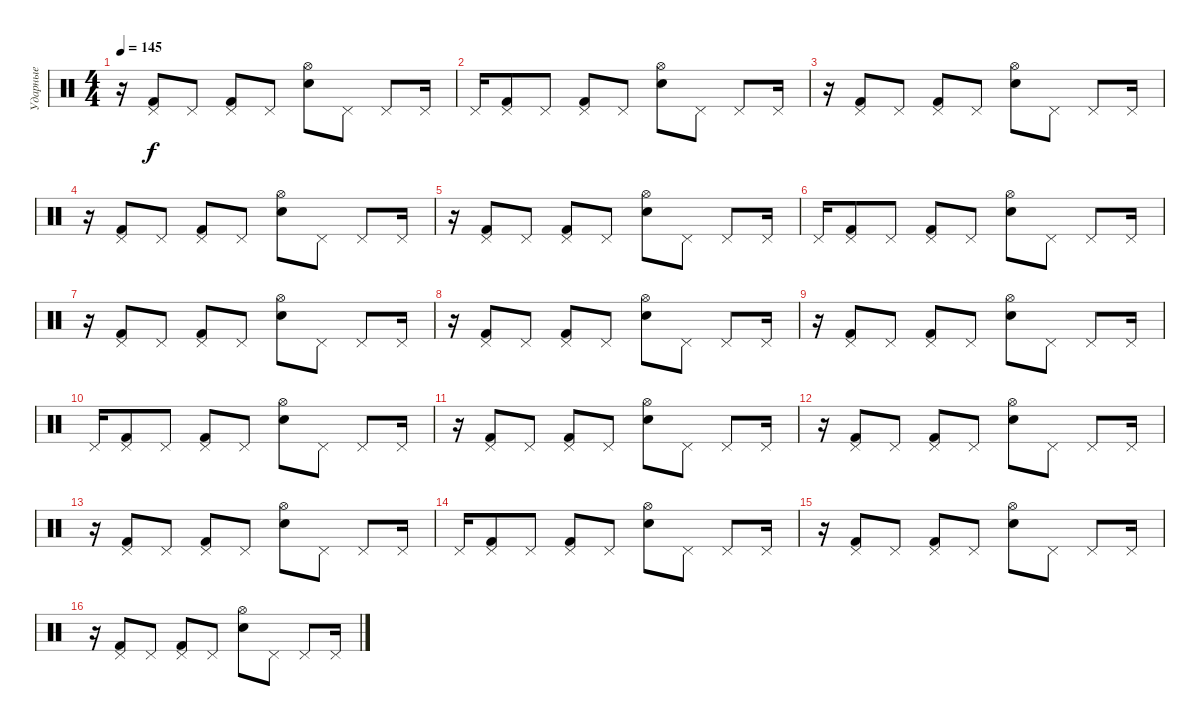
\track ("Ударные" "Ударные") {instrument percussion}
\staff {score}
\articulation defaults
\ts (4 4)
\tempo 145
\clef neutral
\ks c
r.16{dy f} ("Pedal Hi-Hat (hit)" "Kick (hit) 2").8 "Pedal Hi-Hat (hit)".8 ("Pedal Hi-Hat (hit)" "Kick (hit) 2").8 "Pedal Hi-Hat (hit)".8 ("Hi-Hat (open)" "Electric Snare (hit)").8 "Pedal Hi-Hat (hit)".8 "Pedal Hi-Hat (hit)".8 "Pedal Hi-Hat (hit)".16 |
"Pedal Hi-Hat (hit)".16 ("Pedal Hi-Hat (hit)" "Kick (hit) 2").8 "Pedal Hi-Hat (hit)".8 ("Pedal Hi-Hat (hit)" "Kick (hit) 2").8 "Pedal Hi-Hat (hit)".8 ("Hi-Hat (open)" "Electric Snare (hit)").8 "Pedal Hi-Hat (hit)".8 "Pedal Hi-Hat (hit)".8 "Pedal Hi-Hat (hit)".16 |
r.16 ("Pedal Hi-Hat (hit)" "Kick (hit) 2").8 "Pedal Hi-Hat (hit)".8 ("Pedal Hi-Hat (hit)" "Kick (hit) 2").8 "Pedal Hi-Hat (hit)".8 ("Hi-Hat (open)" "Electric Snare (hit)").8 "Pedal Hi-Hat (hit)".8 "Pedal Hi-Hat (hit)".8 "Pedal Hi-Hat (hit)".16 |
r.16 ("Pedal Hi-Hat (hit)" "Kick (hit) 2").8 "Pedal Hi-Hat (hit)".8 ("Pedal Hi-Hat (hit)" "Kick (hit) 2").8 "Pedal Hi-Hat (hit)".8 ("Hi-Hat (open)" "Electric Snare (hit)").8 "Pedal Hi-Hat (hit)".8 "Pedal Hi-Hat (hit)".8 "Pedal Hi-Hat (hit)".16 |
r.16 ("Pedal Hi-Hat (hit)" "Kick (hit) 2").8 "Pedal Hi-Hat (hit)".8 ("Pedal Hi-Hat (hit)" "Kick (hit) 2").8 "Pedal Hi-Hat (hit)".8 ("Hi-Hat (open)" "Electric Snare (hit)").8 "Pedal Hi-Hat (hit)".8 "Pedal Hi-Hat (hit)".8 "Pedal Hi-Hat (hit)".16 |
"Pedal Hi-Hat (hit)".16 ("Pedal Hi-Hat (hit)" "Kick (hit) 2").8 "Pedal Hi-Hat (hit)".8 ("Pedal Hi-Hat (hit)" "Kick (hit) 2").8 "Pedal Hi-Hat (hit)".8 ("Hi-Hat (open)" "Electric Snare (hit)").8 "Pedal Hi-Hat (hit)".8 "Pedal Hi-Hat (hit)".8 "Pedal Hi-Hat (hit)".16 |
r.16 ("Pedal Hi-Hat (hit)" "Kick (hit) 2").8 "Pedal Hi-Hat (hit)".8 ("Pedal Hi-Hat (hit)" "Kick (hit) 2").8 "Pedal Hi-Hat (hit)".8 ("Hi-Hat (open)" "Electric Snare (hit)").8 "Pedal Hi-Hat (hit)".8 "Pedal Hi-Hat (hit)".8 "Pedal Hi-Hat (hit)".16 |
r.16 ("Pedal Hi-Hat (hit)" "Kick (hit) 2").8 "Pedal Hi-Hat (hit)".8 ("Pedal Hi-Hat (hit)" "Kick (hit) 2").8 "Pedal Hi-Hat (hit)".8 ("Hi-Hat (open)" "Electric Snare (hit)").8 "Pedal Hi-Hat (hit)".8 "Pedal Hi-Hat (hit)".8 "Pedal Hi-Hat (hit)".16 |
r.16 ("Pedal Hi-Hat (hit)" "Kick (hit) 2").8 "Pedal Hi-Hat (hit)".8 ("Pedal Hi-Hat (hit)" "Kick (hit) 2").8 "Pedal Hi-Hat (hit)".8 ("Hi-Hat (open)" "Electric Snare (hit)").8 "Pedal Hi-Hat (hit)".8 "Pedal Hi-Hat (hit)".8 "Pedal Hi-Hat (hit)".16 |
"Pedal Hi-Hat (hit)".16 ("Pedal Hi-Hat (hit)" "Kick (hit) 2").8 "Pedal Hi-Hat (hit)".8 ("Pedal Hi-Hat (hit)" "Kick (hit) 2").8 "Pedal Hi-Hat (hit)".8 ("Hi-Hat (open)" "Electric Snare (hit)").8 "Pedal Hi-Hat (hit)".8 "Pedal Hi-Hat (hit)".8 "Pedal Hi-Hat (hit)".16 |
r.16 ("Pedal Hi-Hat (hit)" "Kick (hit) 2").8 "Pedal Hi-Hat (hit)".8 ("Pedal Hi-Hat (hit)" "Kick (hit) 2").8 "Pedal Hi-Hat (hit)".8 ("Hi-Hat (open)" "Electric Snare (hit)").8 "Pedal Hi-Hat (hit)".8 "Pedal Hi-Hat (hit)".8 "Pedal Hi-Hat (hit)".16 |
r.16 ("Pedal Hi-Hat (hit)" "Kick (hit) 2").8 "Pedal Hi-Hat (hit)".8 ("Pedal Hi-Hat (hit)" "Kick (hit) 2").8 "Pedal Hi-Hat (hit)".8 ("Hi-Hat (open)" "Electric Snare (hit)").8 "Pedal Hi-Hat (hit)".8 "Pedal Hi-Hat (hit)".8 "Pedal Hi-Hat (hit)".16 |
r.16 ("Pedal Hi-Hat (hit)" "Kick (hit) 2").8 "Pedal Hi-Hat (hit)".8 ("Pedal Hi-Hat (hit)" "Kick (hit) 2").8 "Pedal Hi-Hat (hit)".8 ("Hi-Hat (open)" "Electric Snare (hit)").8 "Pedal Hi-Hat (hit)".8 "Pedal Hi-Hat (hit)".8 "Pedal Hi-Hat (hit)".16 |
"Pedal Hi-Hat (hit)".16 ("Pedal Hi-Hat (hit)" "Kick (hit) 2").8 "Pedal Hi-Hat (hit)".8 ("Pedal Hi-Hat (hit)" "Kick (hit) 2").8 "Pedal Hi-Hat (hit)".8 ("Hi-Hat (open)" "Electric Snare (hit)").8 "Pedal Hi-Hat (hit)".8 "Pedal Hi-Hat (hit)".8 "Pedal Hi-Hat (hit)".16 |
r.16 ("Pedal Hi-Hat (hit)" "Kick (hit) 2").8 "Pedal Hi-Hat (hit)".8 ("Pedal Hi-Hat (hit)" "Kick (hit) 2").8 "Pedal Hi-Hat (hit)".8 ("Hi-Hat (open)" "Electric Snare (hit)").8 "Pedal Hi-Hat (hit)".8 "Pedal Hi-Hat (hit)".8 "Pedal Hi-Hat (hit)".16 |
r.16 ("Pedal Hi-Hat (hit)" "Kick (hit) 2").8 "Pedal Hi-Hat (hit)".8 ("Pedal Hi-Hat (hit)" "Kick (hit) 2").8 "Pedal Hi-Hat (hit)".8 ("Hi-Hat (open)" "Electric Snare (hit)").8 "Pedal Hi-Hat (hit)".8 "Pedal Hi-Hat (hit)".8 "Pedal Hi-Hat (hit)".16
